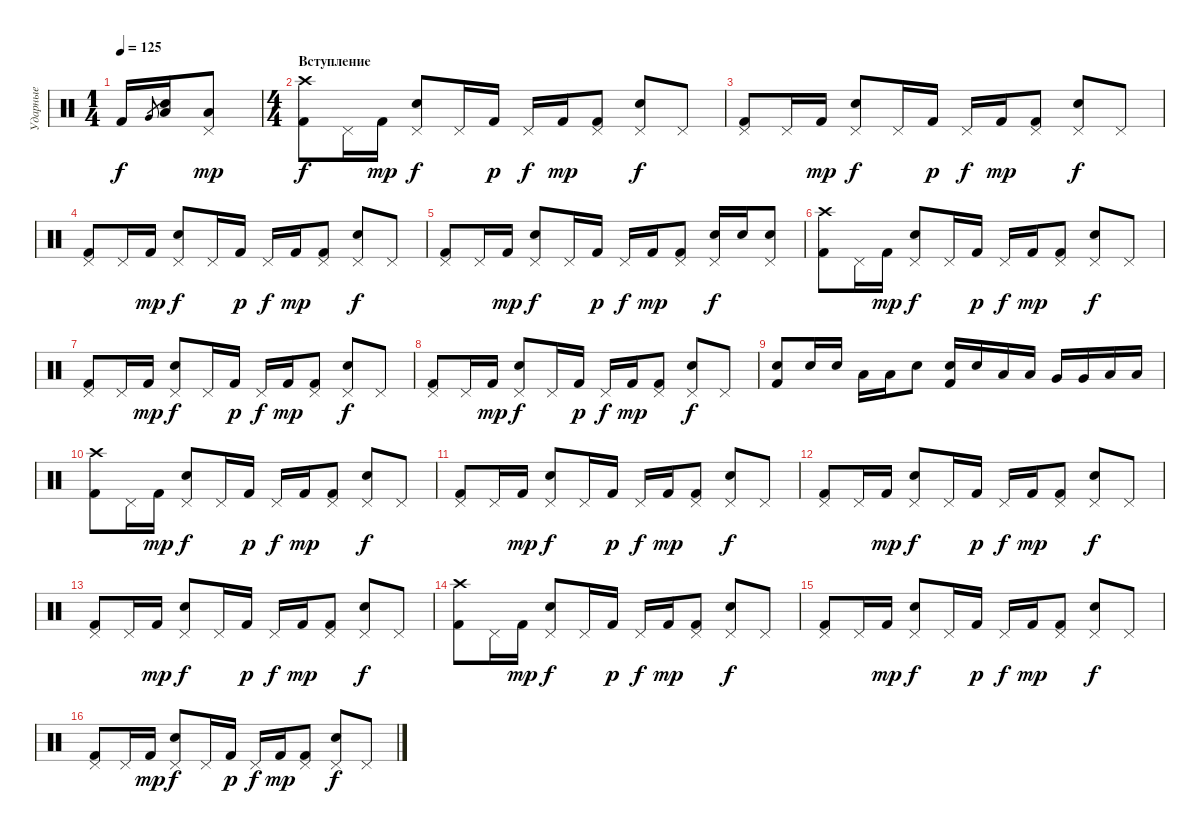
\track ("Ударные" "Ударные") {instrument percussion}
\staff {score}
\articulation defaults
\ts (1 4)
\tempo 125
\clef neutral
\ks c "Kick (hit) 2".16{dy f} "Very Low Tom (hit)".8{gr}
("Snare (hit) 2" "Low Tom (hit)").16 ("Pedal Hi-Hat (hit)" "Low Floor Tom (hit)").8{dy mp} |
\ts (4 4)
\section ("" "Вступление")
("Crash high (hit)" "Kick (hit) 2").8{dy f} "Pedal Hi-Hat (hit)".16 "Kick (hit) 2".16{dy mp} ("Pedal Hi-Hat (hit)" "Snare (hit) 2").8{dy f} "Pedal Hi-Hat (hit)".16 "Kick (hit) 2".16{dy p} "Pedal Hi-Hat (hit)".16{dy f} "Kick (hit) 2".16{dy mp} ("Pedal Hi-Hat (hit)" "Kick (hit) 2").8 ("Pedal Hi-Hat (hit)" "Snare (hit) 2").8{dy f} "Pedal Hi-Hat (hit)".8 |
("Pedal Hi-Hat (hit)" "Kick (hit) 2").8 "Pedal Hi-Hat (hit)".16 "Kick (hit) 2".16{dy mp} ("Pedal Hi-Hat (hit)" "Snare (hit) 2").8{dy f} "Pedal Hi-Hat (hit)".16 "Kick (hit) 2".16{dy p} "Pedal Hi-Hat (hit)".16{dy f} "Kick (hit) 2".16{dy mp} ("Pedal Hi-Hat (hit)" "Kick (hit) 2").8 ("Pedal Hi-Hat (hit)" "Snare (hit) 2").8{dy f} "Pedal Hi-Hat (hit)".8 |
("Pedal Hi-Hat (hit)" "Kick (hit) 2").8 "Pedal Hi-Hat (hit)".16 "Kick (hit) 2".16{dy mp} ("Pedal Hi-Hat (hit)" "Snare (hit) 2").8{dy f} "Pedal Hi-Hat (hit)".16 "Kick (hit) 2".16{dy p} "Pedal Hi-Hat (hit)".16{dy f} "Kick (hit) 2".16{dy mp} ("Pedal Hi-Hat (hit)" "Kick (hit) 2").8 ("Pedal Hi-Hat (hit)" "Snare (hit) 2").8{dy f} "Pedal Hi-Hat (hit)".8 |
("Pedal Hi-Hat (hit)" "Kick (hit) 2").8 "Pedal Hi-Hat (hit)".16 "Kick (hit) 2".16{dy mp} ("Pedal Hi-Hat (hit)" "Snare (hit) 2").8{dy f} "Pedal Hi-Hat (hit)".16 "Kick (hit) 2".16{dy p} "Pedal Hi-Hat (hit)".16{dy f} "Kick (hit) 2".16{dy mp} ("Pedal Hi-Hat (hit)" "Kick (hit) 2").8 ("Pedal Hi-Hat (hit)" "Snare (hit) 2").16{dy f} "Snare (hit) 2".16 ("Pedal Hi-Hat (hit)" "Snare (hit) 2").8 |
("Crash high (hit)" "Kick (hit) 2").8 "Pedal Hi-Hat (hit)".16 "Kick (hit) 2".16{dy mp} ("Pedal Hi-Hat (hit)" "Snare (hit) 2").8{dy f} "Pedal Hi-Hat (hit)".16 "Kick (hit) 2".16{dy p} "Pedal Hi-Hat (hit)".16{dy f} "Kick (hit) 2".16{dy mp} ("Pedal Hi-Hat (hit)" "Kick (hit) 2").8 ("Pedal Hi-Hat (hit)" "Snare (hit) 2").8{dy f} "Pedal Hi-Hat (hit)".8 |
("Pedal Hi-Hat (hit)" "Kick (hit) 2").8 "Pedal Hi-Hat (hit)".16 "Kick (hit) 2".16{dy mp} ("Pedal Hi-Hat (hit)" "Snare (hit) 2").8{dy f} "Pedal Hi-Hat (hit)".16 "Kick (hit) 2".16{dy p} "Pedal Hi-Hat (hit)".16{dy f} "Kick (hit) 2".16{dy mp} ("Pedal Hi-Hat (hit)" "Kick (hit) 2").8 ("Pedal Hi-Hat (hit)" "Snare (hit) 2").8{dy f} "Pedal Hi-Hat (hit)".8 |
("Pedal Hi-Hat (hit)" "Kick (hit) 2").8 "Pedal Hi-Hat (hit)".16 "Kick (hit) 2".16{dy mp} ("Pedal Hi-Hat (hit)" "Snare (hit) 2").8{dy f} "Pedal Hi-Hat (hit)".16 "Kick (hit) 2".16{dy p} "Pedal Hi-Hat (hit)".16{dy f} "Kick (hit) 2".16{dy mp} ("Pedal Hi-Hat (hit)" "Kick (hit) 2").8 ("Pedal Hi-Hat (hit)" "Snare (hit) 2").8{dy f} "Pedal Hi-Hat (hit)".8 |
("Snare (hit) 2" "Kick (hit) 2").8 "Snare (hit) 2".16 "Snare (hit) 2".16 "Low Floor Tom (hit)".16 "Low Floor Tom (hit)".16 "Snare (hit) 2".8 ("Snare (hit) 2" "Kick (hit) 2").16 "Snare (hit) 2".16 "Low Tom (hit)".16 "Low Tom (hit)".16 "Very Low Tom (hit)".16 "Very Low Tom (hit)".16 "Low Floor Tom (hit)".16 "Low Floor Tom (hit)".16 |
("Crash high (hit)" "Kick (hit) 2").8 "Pedal Hi-Hat (hit)".16 "Kick (hit) 2".16{dy mp} ("Pedal Hi-Hat (hit)" "Snare (hit) 2").8{dy f} "Pedal Hi-Hat (hit)".16 "Kick (hit) 2".16{dy p} "Pedal Hi-Hat (hit)".16{dy f} "Kick (hit) 2".16{dy mp} ("Pedal Hi-Hat (hit)" "Kick (hit) 2").8 ("Pedal Hi-Hat (hit)" "Snare (hit) 2").8{dy f} "Pedal Hi-Hat (hit)".8 |
("Pedal Hi-Hat (hit)" "Kick (hit) 2").8 "Pedal Hi-Hat (hit)".16 "Kick (hit) 2".16{dy mp} ("Pedal Hi-Hat (hit)" "Snare (hit) 2").8{dy f} "Pedal Hi-Hat (hit)".16 "Kick (hit) 2".16{dy p} "Pedal Hi-Hat (hit)".16{dy f} "Kick (hit) 2".16{dy mp} ("Pedal Hi-Hat (hit)" "Kick (hit) 2").8 ("Pedal Hi-Hat (hit)" "Snare (hit) 2").8{dy f} "Pedal Hi-Hat (hit)".8 |
("Pedal Hi-Hat (hit)" "Kick (hit) 2").8 "Pedal Hi-Hat (hit)".16 "Kick (hit) 2".16{dy mp} ("Pedal Hi-Hat (hit)" "Snare (hit) 2").8{dy f} "Pedal Hi-Hat (hit)".16 "Kick (hit) 2".16{dy p} "Pedal Hi-Hat (hit)".16{dy f} "Kick (hit) 2".16{dy mp} ("Pedal Hi-Hat (hit)" "Kick (hit) 2").8 ("Pedal Hi-Hat (hit)" "Snare (hit) 2").8{dy f} "Pedal Hi-Hat (hit)".8 |
("Pedal Hi-Hat (hit)" "Kick (hit) 2").8 "Pedal Hi-Hat (hit)".16 "Kick (hit) 2".16{dy mp} ("Pedal Hi-Hat (hit)" "Snare (hit) 2").8{dy f} "Pedal Hi-Hat (hit)".16 "Kick (hit) 2".16{dy p} "Pedal Hi-Hat (hit)".16{dy f} "Kick (hit) 2".16{dy mp} ("Pedal Hi-Hat (hit)" "Kick (hit) 2").8 ("Pedal Hi-Hat (hit)" "Snare (hit) 2").8{dy f} "Pedal Hi-Hat (hit)".8 |
("Crash high (hit)" "Kick (hit) 2").8 "Pedal Hi-Hat (hit)".16 "Kick (hit) 2".16{dy mp} ("Pedal Hi-Hat (hit)" "Snare (hit) 2").8{dy f} "Pedal Hi-Hat (hit)".16 "Kick (hit) 2".16{dy p} "Pedal Hi-Hat (hit)".16{dy f} "Kick (hit) 2".16{dy mp} ("Pedal Hi-Hat (hit)" "Kick (hit) 2").8 ("Pedal Hi-Hat (hit)" "Snare (hit) 2").8{dy f} "Pedal Hi-Hat (hit)".8 |
("Pedal Hi-Hat (hit)" "Kick (hit) 2").8 "Pedal Hi-Hat (hit)".16 "Kick (hit) 2".16{dy mp} ("Pedal Hi-Hat (hit)" "Snare (hit) 2").8{dy f} "Pedal Hi-Hat (hit)".16 "Kick (hit) 2".16{dy p} "Pedal Hi-Hat (hit)".16{dy f} "Kick (hit) 2".16{dy mp} ("Pedal Hi-Hat (hit)" "Kick (hit) 2").8 ("Pedal Hi-Hat (hit)" "Snare (hit) 2").8{dy f} "Pedal Hi-Hat (hit)".8 |
("Pedal Hi-Hat (hit)" "Kick (hit) 2").8 "Pedal Hi-Hat (hit)".16 "Kick (hit) 2".16{dy mp} ("Pedal Hi-Hat (hit)" "Snare (hit) 2").8{dy f} "Pedal Hi-Hat (hit)".16 "Kick (hit) 2".16{dy p} "Pedal Hi-Hat (hit)".16{dy f} "Kick (hit) 2".16{dy mp} ("Pedal Hi-Hat (hit)" "Kick (hit) 2").8 ("Pedal Hi-Hat (hit)" "Snare (hit) 2").8{dy f} "Pedal Hi-Hat (hit)".8
